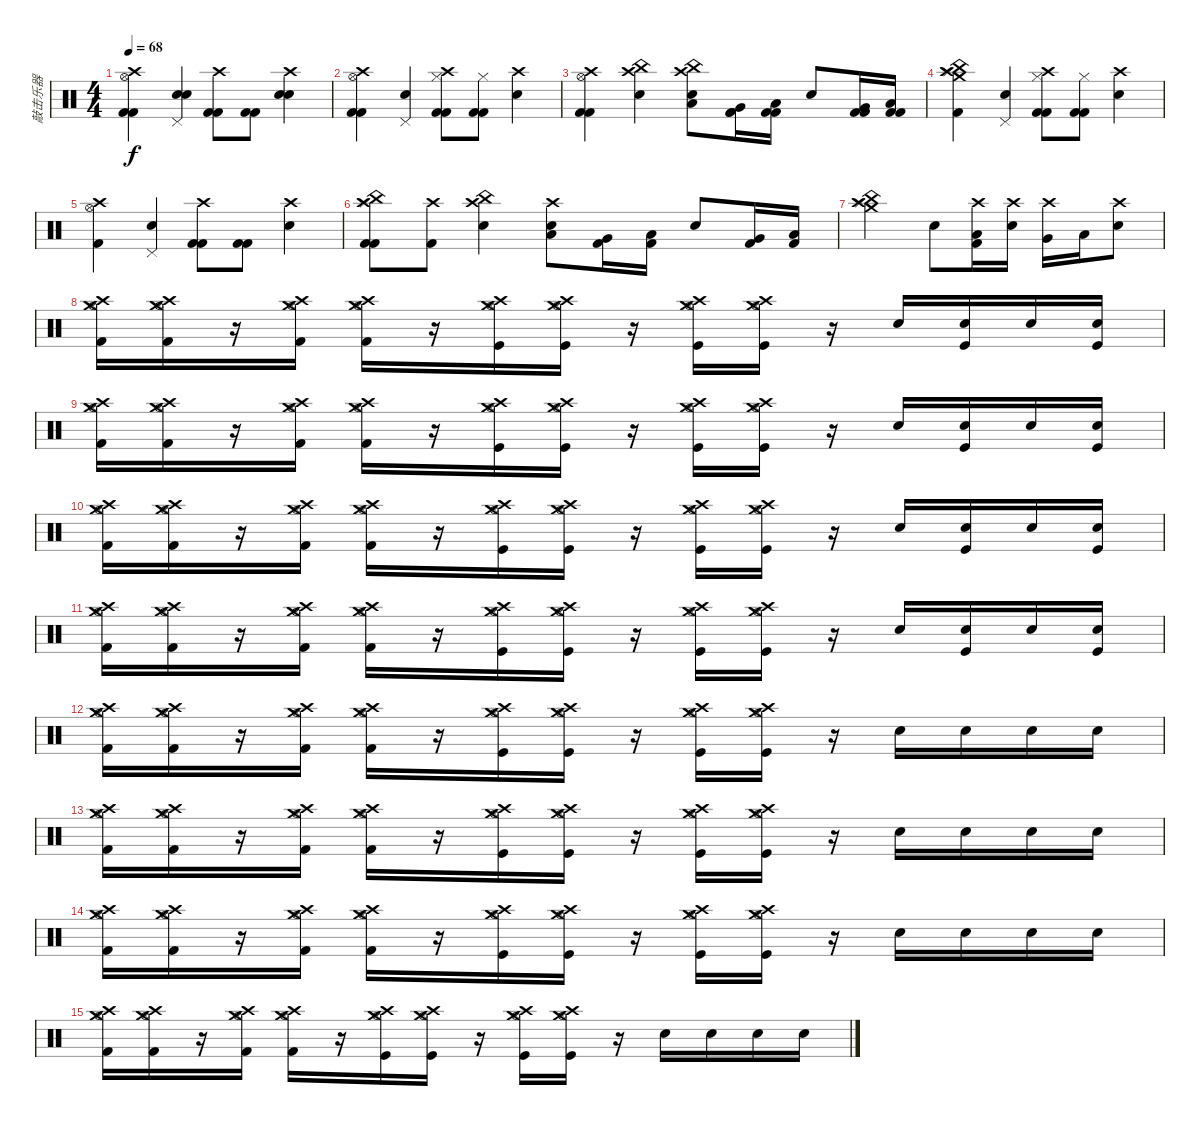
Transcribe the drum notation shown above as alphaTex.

\track ("敲击乐器" "敲击乐器") {instrument percussion}
\staff {score}
\articulation defaults
\ts (4 4)
\tempo 68
\clef neutral
\ks c
("Crash high (hit)" "Hi-Hat (open)" "Kick (hit) 2" "Kick (hit) 2").4{dy f} ("Pedal Hi-Hat (hit)" "Snare (hit) 2" "Snare (hit) 2").4 ("Crash high (hit)" "Kick (hit) 2" "Kick (hit) 2").8 ("Kick (hit) 2" "Kick (hit) 2").8 ("Crash high (hit)" "Electric Snare (hit)" "Electric Snare (hit)").4 |
("Crash high (hit)" "Hi-Hat (open)" "Kick (hit) 2" "Kick (hit) 2").4 ("Pedal Hi-Hat (hit)" "Snare (hit) 2").4 ("Crash high (hit)" "Hi-Hat (closed)" "Kick (hit) 2" "Kick (hit) 2").8 ("Hi-Hat (closed)" "Kick (hit) 2" "Kick (hit) 2").8 ("Crash high (hit)" "Electric Snare (hit)").4 |
("Crash high (hit)" "Hi-Hat (open)" "Kick (hit) 2" "Kick (hit) 2").4 ("China (hit)" "Crash high (hit)" "Snare (hit) 2").4 ("China (hit)" "Crash high (hit)" "Low Tom (hit)" "Electric Snare (hit)").8 ("Very Low Tom (hit)" "Kick (hit) 2" "Kick (hit) 2").16 ("Low Floor Tom (hit)" "Kick (hit) 2" "Kick (hit) 2").16 "Electric Snare (hit)".8 ("Very Low Tom (hit)" "Kick (hit) 2" "Kick (hit) 2").16 ("Low Floor Tom (hit)" "Kick (hit) 2" "Kick (hit) 2").16 |
("Kick (hit) 2" "Crash high (hit)" "China (hit)" "Splash (hit)" "Crash medium (hit)").4 ("Pedal Hi-Hat (hit)" "Snare (hit) 2").4 ("Crash high (hit)" "Hi-Hat (closed)" "Kick (hit) 2" "Kick (hit) 2").8 ("Hi-Hat (closed)" "Kick (hit) 2" "Kick (hit) 2").8 ("Crash high (hit)" "Electric Snare (hit)").4 |
("Crash high (hit)" "Hi-Hat (open)" "Kick (hit) 2").4 ("Pedal Hi-Hat (hit)" "Snare (hit) 2").4 ("Crash high (hit)" "Kick (hit) 2" "Kick (hit) 2").8 ("Kick (hit) 2" "Kick (hit) 2").8 ("Crash high (hit)" "Electric Snare (hit)").4 |
("Kick (hit) 2" "Crash high (hit)" "China (hit)" "Splash (hit)" "Kick (hit) 2").8 ("Crash high (hit)" "Kick (hit) 2").8 ("China (hit)" "Crash high (hit)" "Snare (hit) 2").4 ("Crash high (hit)" "Low Tom (hit)" "Electric Snare (hit)").8 ("Very Low Tom (hit)" "Kick (hit) 2").16 ("Low Floor Tom (hit)" "Kick (hit) 2").16 "Electric Snare (hit)".8 ("Very Low Tom (hit)" "Kick (hit) 2").16 ("Low Floor Tom (hit)" "Kick (hit) 2").16 |
("Crash high (hit)" "China (hit)" "Splash (hit)" "Crash medium (hit)").2 "Electric Snare (hit)".8 ("Crash high (hit)" "Low Floor Tom (hit)" "Kick (hit) 2").16 ("Crash high (hit)" "Electric Snare (hit)").16 ("Crash high (hit)" "Very Low Tom (hit)").16 "Low Floor Tom (hit)".16 ("Crash high (hit)" "Electric Snare (hit)").8 |
("Crash medium (hit)" "Crash high (hit)" "Hi-Hat (open)" "Kick (hit) 2").16 ("Crash medium (hit)" "Crash high (hit)" "Hi-Hat (open)" "Kick (hit) 2").16 r.16 ("Crash medium (hit)" "Crash high (hit)" "Hi-Hat (open)" "Kick (hit) 2").16 ("Crash medium (hit)" "Crash high (hit)" "Hi-Hat (open)" "Kick (hit) 2").16 r.16 ("Crash medium (hit)" "Crash high (hit)" "Hi-Hat (open)" "Kick (hit)").16 ("Crash medium (hit)" "Crash high (hit)" "Hi-Hat (open)" "Kick (hit)").16 r.16 ("Crash medium (hit)" "Crash high (hit)" "Hi-Hat (open)" "Kick (hit)").16 ("Crash medium (hit)" "Crash high (hit)" "Hi-Hat (open)" "Kick (hit)").16 r.16 "Electric Snare (hit)".16 ("Kick (hit)" "Snare (hit) 2").16 "Electric Snare (hit)".16 ("Kick (hit)" "Snare (hit) 2").16 |
("Crash medium (hit)" "Crash high (hit)" "Hi-Hat (open)" "Kick (hit) 2").16 ("Crash medium (hit)" "Crash high (hit)" "Hi-Hat (open)" "Kick (hit) 2").16 r.16 ("Crash medium (hit)" "Crash high (hit)" "Hi-Hat (open)" "Kick (hit) 2").16 ("Crash medium (hit)" "Crash high (hit)" "Hi-Hat (open)" "Kick (hit) 2").16 r.16 ("Crash medium (hit)" "Crash high (hit)" "Hi-Hat (open)" "Kick (hit)").16 ("Crash medium (hit)" "Crash high (hit)" "Hi-Hat (open)" "Kick (hit)").16 r.16 ("Crash medium (hit)" "Crash high (hit)" "Hi-Hat (open)" "Kick (hit)").16 ("Crash medium (hit)" "Crash high (hit)" "Hi-Hat (open)" "Kick (hit)").16 r.16 "Electric Snare (hit)".16 ("Kick (hit)" "Snare (hit) 2").16 "Electric Snare (hit)".16 ("Kick (hit)" "Snare (hit) 2").16 |
("Crash medium (hit)" "Crash high (hit)" "Hi-Hat (open)" "Kick (hit) 2").16 ("Crash medium (hit)" "Crash high (hit)" "Hi-Hat (open)" "Kick (hit) 2").16 r.16 ("Crash medium (hit)" "Crash high (hit)" "Hi-Hat (open)" "Kick (hit) 2").16 ("Crash medium (hit)" "Crash high (hit)" "Hi-Hat (open)" "Kick (hit) 2").16 r.16 ("Crash medium (hit)" "Crash high (hit)" "Hi-Hat (open)" "Kick (hit)").16 ("Crash medium (hit)" "Crash high (hit)" "Hi-Hat (open)" "Kick (hit)").16 r.16 ("Crash medium (hit)" "Crash high (hit)" "Hi-Hat (open)" "Kick (hit)").16 ("Crash medium (hit)" "Crash high (hit)" "Hi-Hat (open)" "Kick (hit)").16 r.16 "Electric Snare (hit)".16 ("Kick (hit)" "Snare (hit) 2").16 "Electric Snare (hit)".16 ("Kick (hit)" "Snare (hit) 2").16 |
("Crash medium (hit)" "Crash high (hit)" "Hi-Hat (open)" "Kick (hit) 2").16 ("Crash medium (hit)" "Crash high (hit)" "Hi-Hat (open)" "Kick (hit) 2").16 r.16 ("Crash medium (hit)" "Crash high (hit)" "Hi-Hat (open)" "Kick (hit) 2").16 ("Crash medium (hit)" "Crash high (hit)" "Hi-Hat (open)" "Kick (hit) 2").16 r.16 ("Crash medium (hit)" "Crash high (hit)" "Hi-Hat (open)" "Kick (hit)").16 ("Crash medium (hit)" "Crash high (hit)" "Hi-Hat (open)" "Kick (hit)").16 r.16 ("Crash medium (hit)" "Crash high (hit)" "Hi-Hat (open)" "Kick (hit)").16 ("Crash medium (hit)" "Crash high (hit)" "Hi-Hat (open)" "Kick (hit)").16 r.16 "Electric Snare (hit)".16 ("Kick (hit)" "Snare (hit) 2").16 "Electric Snare (hit)".16 ("Kick (hit)" "Snare (hit) 2").16 |
("Crash medium (hit)" "Crash high (hit)" "Hi-Hat (open)" "Kick (hit) 2").16 ("Crash medium (hit)" "Crash high (hit)" "Hi-Hat (open)" "Kick (hit) 2").16 r.16 ("Crash medium (hit)" "Crash high (hit)" "Hi-Hat (open)" "Kick (hit) 2").16 ("Crash medium (hit)" "Crash high (hit)" "Hi-Hat (open)" "Kick (hit) 2").16 r.16 ("Crash medium (hit)" "Crash high (hit)" "Hi-Hat (open)" "Kick (hit)").16 ("Crash medium (hit)" "Crash high (hit)" "Hi-Hat (open)" "Kick (hit)").16 r.16 ("Crash medium (hit)" "Crash high (hit)" "Hi-Hat (open)" "Kick (hit)").16 ("Crash medium (hit)" "Crash high (hit)" "Hi-Hat (open)" "Kick (hit)").16 r.16 "Electric Snare (hit)".16 "Electric Snare (hit)".16 "Electric Snare (hit)".16 "Electric Snare (hit)".16 |
("Crash medium (hit)" "Crash high (hit)" "Hi-Hat (open)" "Kick (hit) 2").16 ("Crash medium (hit)" "Crash high (hit)" "Hi-Hat (open)" "Kick (hit) 2").16 r.16 ("Crash medium (hit)" "Crash high (hit)" "Hi-Hat (open)" "Kick (hit) 2").16 ("Crash medium (hit)" "Crash high (hit)" "Hi-Hat (open)" "Kick (hit) 2").16 r.16 ("Crash medium (hit)" "Crash high (hit)" "Hi-Hat (open)" "Kick (hit)").16 ("Crash medium (hit)" "Crash high (hit)" "Hi-Hat (open)" "Kick (hit)").16 r.16 ("Crash medium (hit)" "Crash high (hit)" "Hi-Hat (open)" "Kick (hit)").16 ("Crash medium (hit)" "Crash high (hit)" "Hi-Hat (open)" "Kick (hit)").16 r.16 "Electric Snare (hit)".16 "Electric Snare (hit)".16 "Electric Snare (hit)".16 "Electric Snare (hit)".16 |
("Crash medium (hit)" "Crash high (hit)" "Hi-Hat (open)" "Kick (hit) 2").16 ("Crash medium (hit)" "Crash high (hit)" "Hi-Hat (open)" "Kick (hit) 2").16 r.16 ("Crash medium (hit)" "Crash high (hit)" "Hi-Hat (open)" "Kick (hit) 2").16 ("Crash medium (hit)" "Crash high (hit)" "Hi-Hat (open)" "Kick (hit) 2").16 r.16 ("Crash medium (hit)" "Crash high (hit)" "Hi-Hat (open)" "Kick (hit)").16 ("Crash medium (hit)" "Crash high (hit)" "Hi-Hat (open)" "Kick (hit)").16 r.16 ("Crash medium (hit)" "Crash high (hit)" "Hi-Hat (open)" "Kick (hit)").16 ("Crash medium (hit)" "Crash high (hit)" "Hi-Hat (open)" "Kick (hit)").16 r.16 "Electric Snare (hit)".16 "Electric Snare (hit)".16 "Electric Snare (hit)".16 "Electric Snare (hit)".16 |
("Crash medium (hit)" "Crash high (hit)" "Hi-Hat (open)" "Kick (hit) 2").16 ("Crash medium (hit)" "Crash high (hit)" "Hi-Hat (open)" "Kick (hit) 2").16 r.16 ("Crash medium (hit)" "Crash high (hit)" "Hi-Hat (open)" "Kick (hit) 2").16 ("Crash medium (hit)" "Crash high (hit)" "Hi-Hat (open)" "Kick (hit) 2").16 r.16 ("Crash medium (hit)" "Crash high (hit)" "Hi-Hat (open)" "Kick (hit)").16 ("Crash medium (hit)" "Crash high (hit)" "Hi-Hat (open)" "Kick (hit)").16 r.16 ("Crash medium (hit)" "Crash high (hit)" "Hi-Hat (open)" "Kick (hit)").16 ("Crash medium (hit)" "Crash high (hit)" "Hi-Hat (open)" "Kick (hit)").16 r.16 "Electric Snare (hit)".16 "Electric Snare (hit)".16 "Electric Snare (hit)".16 "Electric Snare (hit)".16
